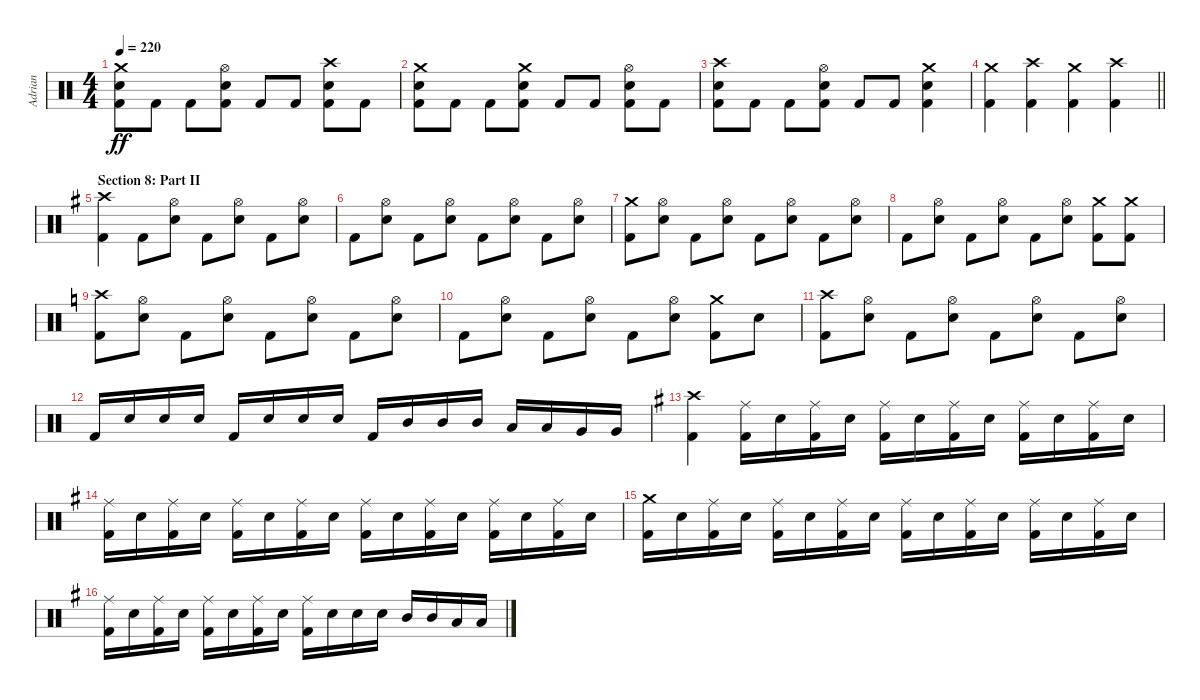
\track ("Adrian" "Adrian") {instrument percussion}
\staff {score}
\articulation defaults
\ts (4 4)
\tempo 220
\clef neutral
\ks c
("Crash medium (hit)" "Electric Snare (hit)" "Kick (hit) 2").8{dy ff} "Kick (hit) 2".8 "Kick (hit) 2".8 ("Hi-Hat (open)" "Electric Snare (hit)" "Kick (hit) 2").8 "Kick (hit) 2".8 "Kick (hit) 2".8 ("Crash high (hit)" "Electric Snare (hit)" "Kick (hit) 2").8 "Kick (hit) 2".8 |
("Crash medium (hit)" "Electric Snare (hit)" "Kick (hit) 2").8 "Kick (hit) 2".8 "Kick (hit) 2".8 ("Crash medium (hit)" "Electric Snare (hit)" "Kick (hit) 2").8 "Kick (hit) 2".8 "Kick (hit) 2".8 ("Hi-Hat (open)" "Electric Snare (hit)" "Kick (hit) 2").8 "Kick (hit) 2".8 |
("Crash high (hit)" "Electric Snare (hit)" "Kick (hit) 2").8 "Kick (hit) 2".8 "Kick (hit) 2".8 ("Hi-Hat (open)" "Electric Snare (hit)" "Kick (hit) 2").8 "Kick (hit) 2".8 "Kick (hit) 2".8 ("Crash medium (hit)" "Electric Snare (hit)" "Kick (hit) 2").4 |
\barLineRight lightlight
("Crash medium (hit)" "Kick (hit) 2").4 ("Crash high (hit)" "Kick (hit) 2").4 ("Crash medium (hit)" "Kick (hit) 2").4 ("Crash high (hit)" "Kick (hit) 2").4 |
\section ("" "Section 8: Part II")
\ks g
("Crash high (hit)" "Kick (hit) 2").4 "Kick (hit) 2".8 ("Hi-Hat (open)" "Electric Snare (hit)").8 "Kick (hit) 2".8 ("Hi-Hat (open)" "Electric Snare (hit)").8 "Kick (hit) 2".8 ("Hi-Hat (open)" "Electric Snare (hit)").8 |
"Kick (hit) 2".8 ("Hi-Hat (open)" "Electric Snare (hit)").8 "Kick (hit) 2".8 ("Hi-Hat (open)" "Electric Snare (hit)").8 "Kick (hit) 2".8 ("Hi-Hat (open)" "Electric Snare (hit)").8 "Kick (hit) 2".8 ("Hi-Hat (open)" "Electric Snare (hit)").8 |
("Crash medium (hit)" "Kick (hit) 2").8 ("Hi-Hat (open)" "Electric Snare (hit)").8 "Kick (hit) 2".8 ("Hi-Hat (open)" "Electric Snare (hit)").8 "Kick (hit) 2".8 ("Hi-Hat (open)" "Electric Snare (hit)").8 "Kick (hit) 2".8 ("Hi-Hat (open)" "Electric Snare (hit)").8 |
"Kick (hit) 2".8 ("Hi-Hat (open)" "Electric Snare (hit)").8 "Kick (hit) 2".8 ("Hi-Hat (open)" "Electric Snare (hit)").8 "Kick (hit) 2".8 ("Hi-Hat (open)" "Electric Snare (hit)").8 ("Crash medium (hit)" "Kick (hit) 2").8 ("Crash medium (hit)" "Kick (hit) 2").8 |
\ks c
("Crash high (hit)" "Kick (hit) 2").8 ("Hi-Hat (open)" "Electric Snare (hit)").8 "Kick (hit) 2".8 ("Hi-Hat (open)" "Electric Snare (hit)").8 "Kick (hit) 2".8 ("Hi-Hat (open)" "Electric Snare (hit)").8 "Kick (hit) 2".8 ("Hi-Hat (open)" "Electric Snare (hit)").8 |
"Kick (hit) 2".8 ("Hi-Hat (open)" "Electric Snare (hit)").8 "Kick (hit) 2".8 ("Hi-Hat (open)" "Electric Snare (hit)").8 "Kick (hit) 2".8 ("Hi-Hat (open)" "Electric Snare (hit)").8 ("Crash medium (hit)" "Kick (hit) 2").8 "Electric Snare (hit)".8 |
("Crash high (hit)" "Kick (hit) 2").8 ("Hi-Hat (open)" "Electric Snare (hit)").8 "Kick (hit) 2".8 ("Hi-Hat (open)" "Electric Snare (hit)").8 "Kick (hit) 2".8 ("Hi-Hat (open)" "Electric Snare (hit)").8 "Kick (hit) 2".8 ("Hi-Hat (open)" "Electric Snare (hit)").8 |
"Kick (hit) 2".16 "Electric Snare (hit)".16 "Electric Snare (hit)".16 "Electric Snare (hit)".16 "Kick (hit) 2".16 "Electric Snare (hit)".16 "Electric Snare (hit)".16 "Electric Snare (hit)".16 "Kick (hit) 2".16 "Mid Tom (hit)".16 "Mid Tom (hit)".16 "Mid Tom (hit)".16 "Low Tom (hit)".16 "Low Tom (hit)".16 "Very Low Tom (hit)".16 "Very Low Tom (hit)".16 |
\ks g
("Crash high (hit)" "Kick (hit) 2").4 ("Ride (middle)" "Kick (hit) 2").16 "Electric Snare (hit)".16 ("Ride (middle)" "Kick (hit) 2").16 "Electric Snare (hit)".16 ("Ride (middle)" "Kick (hit) 2").16 "Electric Snare (hit)".16 ("Ride (middle)" "Kick (hit) 2").16 "Electric Snare (hit)".16 ("Ride (middle)" "Kick (hit) 2").16 "Electric Snare (hit)".16 ("Ride (middle)" "Kick (hit) 2").16 "Electric Snare (hit)".16 |
("Ride (middle)" "Kick (hit) 2").16 "Electric Snare (hit)".16 ("Ride (middle)" "Kick (hit) 2").16 "Electric Snare (hit)".16 ("Ride (middle)" "Kick (hit) 2").16 "Electric Snare (hit)".16 ("Ride (middle)" "Kick (hit) 2").16 "Electric Snare (hit)".16 ("Ride (middle)" "Kick (hit) 2").16 "Electric Snare (hit)".16 ("Ride (middle)" "Kick (hit) 2").16 "Electric Snare (hit)".16 ("Ride (middle)" "Kick (hit) 2").16 "Electric Snare (hit)".16 ("Ride (middle)" "Kick (hit) 2").16 "Electric Snare (hit)".16 |
("Crash medium (hit)" "Kick (hit) 2").16 "Electric Snare (hit)".16 ("Ride (middle)" "Kick (hit) 2").16 "Electric Snare (hit)".16 ("Ride (middle)" "Kick (hit) 2").16 "Electric Snare (hit)".16 ("Ride (middle)" "Kick (hit) 2").16 "Electric Snare (hit)".16 ("Ride (middle)" "Kick (hit) 2").16 "Electric Snare (hit)".16 ("Ride (middle)" "Kick (hit) 2").16 "Electric Snare (hit)".16 ("Ride (middle)" "Kick (hit) 2").16 "Electric Snare (hit)".16 ("Ride (middle)" "Kick (hit) 2").16 "Electric Snare (hit)".16 |
("Ride (middle)" "Kick (hit) 2").16 "Electric Snare (hit)".16 ("Ride (middle)" "Kick (hit) 2").16 "Electric Snare (hit)".16 ("Ride (middle)" "Kick (hit) 2").16 "Electric Snare (hit)".16 ("Ride (middle)" "Kick (hit) 2").16 "Electric Snare (hit)".16 ("Ride (middle)" "Kick (hit) 2").16 "Electric Snare (hit)".16 "Electric Snare (hit)".16 "Electric Snare (hit)".16 "Mid Tom (hit)".16 "Mid Tom (hit)".16 "Low Tom (hit)".16 "Low Tom (hit)".16
